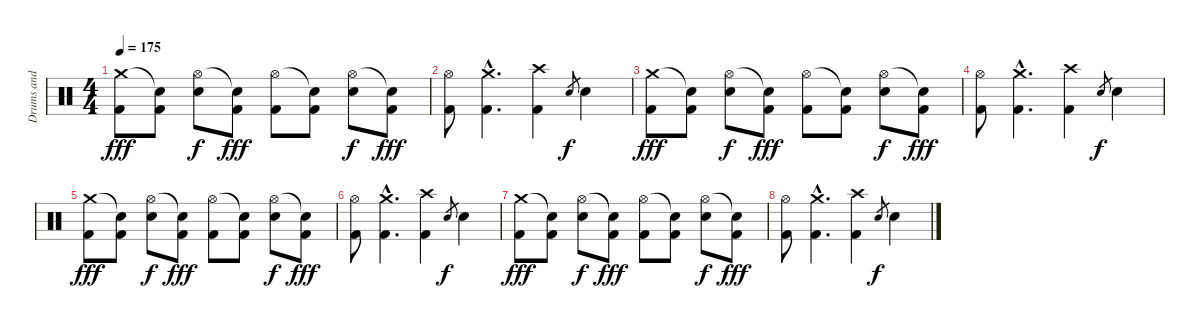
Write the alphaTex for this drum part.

\track ("Drums and Percussion" "Drums and ") {instrument percussion}
\staff {score}
\articulation defaults
\ts (4 4)
\tempo 175
\clef neutral
\ks c
("Crash medium (hit)" "Kick (hit) 2").8{dy fff} ("Snare (hit)"{t} "Kick (hit) 2").8 ("Hi-Hat (open)" "Snare (hit) 2").8{dy f} ("Snare (hit)"{t} "Kick (hit) 2").8{dy fff} ("Hi-Hat (open)" "Kick (hit) 2").8 ("Snare (hit)"{t} "Kick (hit) 2").8 ("Hi-Hat (open)" "Snare (hit) 2").8{dy f} ("Snare (hit)"{t} "Kick (hit) 2").8{dy fff} |
("Hi-Hat (open)" "Kick (hit) 2").8 ("Crash medium (hit)"{hac} "Kick (hit) 2"{hac}).4{d} ("Crash high (hit)" "Kick (hit) 2").4 "Snare (hit) 2".8{gr dy f} "Snare (hit) 2".4 |
("Crash medium (hit)" "Kick (hit) 2").8{dy fff} ("Snare (hit)"{t} "Kick (hit) 2").8 ("Hi-Hat (open)" "Snare (hit) 2").8{dy f} ("Snare (hit)"{t} "Kick (hit) 2").8{dy fff} ("Hi-Hat (open)" "Kick (hit) 2").8 ("Snare (hit)"{t} "Kick (hit) 2").8 ("Hi-Hat (open)" "Snare (hit) 2").8{dy f} ("Snare (hit)"{t} "Kick (hit) 2").8{dy fff} |
("Hi-Hat (open)" "Kick (hit) 2").8 ("Crash medium (hit)"{hac} "Kick (hit) 2"{hac}).4{d} ("Crash high (hit)" "Kick (hit) 2").4 "Snare (hit) 2".8{gr dy f} "Snare (hit) 2".4 |
("Crash medium (hit)" "Kick (hit) 2").8{dy fff} ("Snare (hit)"{t} "Kick (hit) 2").8 ("Hi-Hat (open)" "Snare (hit) 2").8{dy f} ("Snare (hit)"{t} "Kick (hit) 2").8{dy fff} ("Hi-Hat (open)" "Kick (hit) 2").8 ("Snare (hit)"{t} "Kick (hit) 2").8 ("Hi-Hat (open)" "Snare (hit) 2").8{dy f} ("Snare (hit)"{t} "Kick (hit) 2").8{dy fff} |
("Hi-Hat (open)" "Kick (hit) 2").8 ("Crash medium (hit)"{hac} "Kick (hit) 2"{hac}).4{d} ("Crash high (hit)" "Kick (hit) 2").4 "Snare (hit) 2".8{gr dy f} "Snare (hit) 2".4 |
("Crash medium (hit)" "Kick (hit) 2").8{dy fff} ("Snare (hit)"{t} "Kick (hit) 2").8 ("Hi-Hat (open)" "Snare (hit) 2").8{dy f} ("Snare (hit)"{t} "Kick (hit) 2").8{dy fff} ("Hi-Hat (open)" "Kick (hit) 2").8 ("Snare (hit)"{t} "Kick (hit) 2").8 ("Hi-Hat (open)" "Snare (hit) 2").8{dy f} ("Snare (hit)"{t} "Kick (hit) 2").8{dy fff} |
("Hi-Hat (open)" "Kick (hit) 2").8 ("Crash medium (hit)"{hac} "Kick (hit) 2"{hac}).4{d} ("Crash high (hit)" "Kick (hit) 2").4 "Snare (hit) 2".8{gr dy f} "Snare (hit) 2".4
